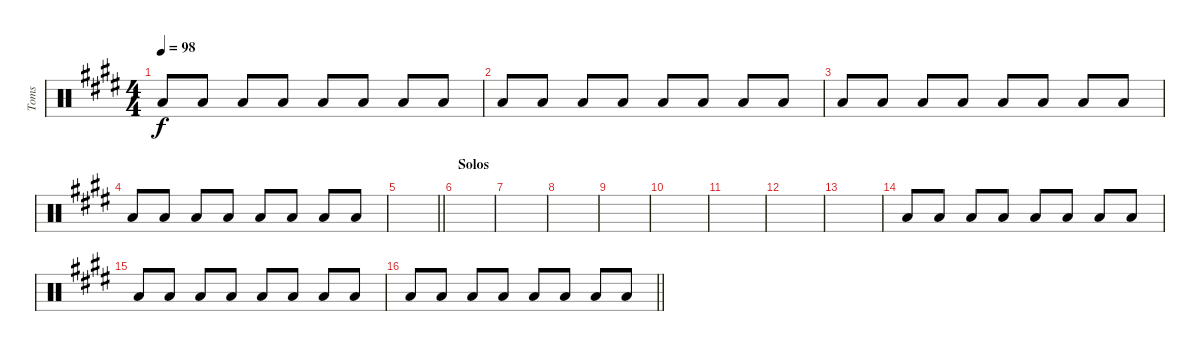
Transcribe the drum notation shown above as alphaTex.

\track ("Toms" "Toms") {instrument percussion}
\staff {score}
\articulation defaults
\ts (4 4)
\tempo 98
\clef neutral
\ks c#minor "Low Tom (hit)".8{dy f} "Low Floor Tom (hit)".8 "Low Floor Tom (hit)".8 "Low Floor Tom (hit)".8 "Low Tom (hit)".8 "Low Floor Tom (hit)".8 "Low Floor Tom (hit)".8 "Low Floor Tom (hit)".8
|
"Low Tom (hit)".8 "Low Floor Tom (hit)".8 "Low Floor Tom (hit)".8 "Low Floor Tom (hit)".8 "Low Tom (hit)".8 "Low Floor Tom (hit)".8 "Low Floor Tom (hit)".8 "Low Floor Tom (hit)".8 |
"Low Tom (hit)".8 "Low Floor Tom (hit)".8 "Low Floor Tom (hit)".8 "Low Floor Tom (hit)".8 "Low Tom (hit)".8 "Low Floor Tom (hit)".8 "Low Floor Tom (hit)".8 "Low Floor Tom (hit)".8 |
"Low Tom (hit)".8 "Low Floor Tom (hit)".8 "Low Floor Tom (hit)".8 "Low Floor Tom (hit)".8 "Low Tom (hit)".8 "Low Floor Tom (hit)".8 "Low Floor Tom (hit)".8 "Low Floor Tom (hit)".8 |
\barLineRight lightlight
|
\section ("" "Solos")
|
|
|
|
|
|
|
|
"Low Tom (hit)".8 "Low Floor Tom (hit)".8 "Low Floor Tom (hit)".8 "Low Floor Tom (hit)".8 "Low Tom (hit)".8 "Low Floor Tom (hit)".8 "Low Floor Tom (hit)".8 "Low Floor Tom (hit)".8 |
"Low Tom (hit)".8 "Low Floor Tom (hit)".8 "Low Floor Tom (hit)".8 "Low Floor Tom (hit)".8 "Low Tom (hit)".8 "Low Floor Tom (hit)".8 "Low Floor Tom (hit)".8 "Low Floor Tom (hit)".8 |
\barLineRight lightlight "Low Tom (hit)".8 "Low Floor Tom (hit)".8 "Low Floor Tom (hit)".8 "Low Floor Tom (hit)".8 "Low Tom (hit)".8 "Low Floor Tom (hit)".8 "Low Floor Tom (hit)".8 "Low Floor Tom (hit)".8
